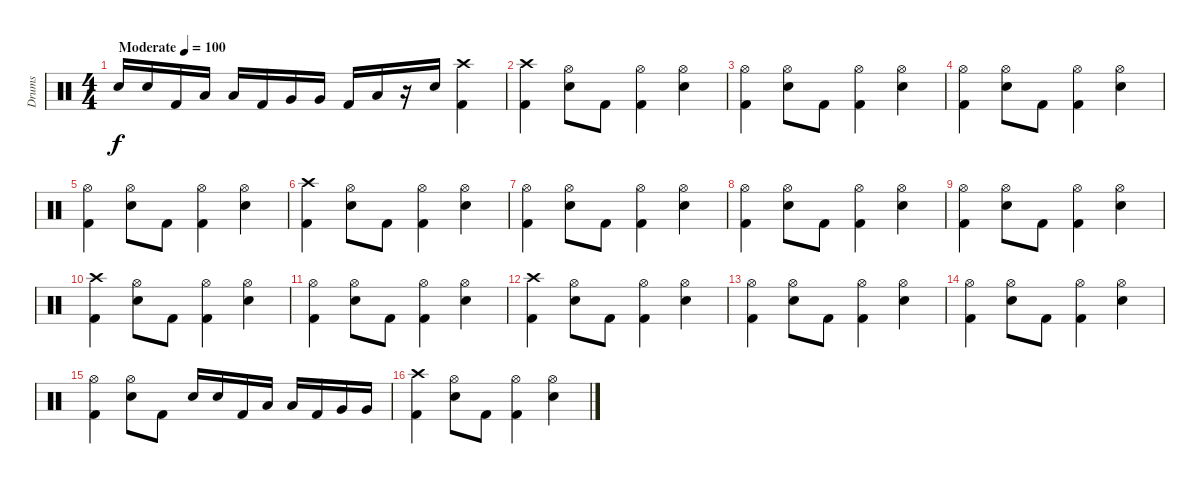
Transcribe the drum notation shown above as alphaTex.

\track ("Drums" "Drums") {instrument percussion}
\staff {score}
\articulation defaults
\ts (4 4)
\tempo (100 "Moderate")
\clef neutral
\ks c "Snare (hit) 2".16{dy f} "Snare (hit) 2".16 "Kick (hit) 2".16 "Low Tom (hit)".16 "Low Tom (hit)".16 "Kick (hit) 2".16 "Very Low Tom (hit)".16 "Very Low Tom (hit)".16 "Kick (hit) 2".16 "Low Floor Tom (hit)".16
r.16 "Snare (hit) 2".16 ("Kick (hit) 2" "Crash high (hit)").4 |
("Kick (hit) 2" "Crash high (hit)").4 ("Snare (hit) 2" "Hi-Hat (open)").8 "Kick (hit) 2".8 ("Kick (hit) 2" "Hi-Hat (open)").4 ("Snare (hit) 2" "Hi-Hat (open)").4 |
("Kick (hit) 2" "Hi-Hat (open)").4 ("Snare (hit) 2" "Hi-Hat (open)").8 "Kick (hit) 2".8 ("Kick (hit) 2" "Hi-Hat (open)").4 ("Snare (hit) 2" "Hi-Hat (open)").4 |
("Kick (hit) 2" "Hi-Hat (open)").4 ("Snare (hit) 2" "Hi-Hat (open)").8 "Kick (hit) 2".8 ("Kick (hit) 2" "Hi-Hat (open)").4 ("Snare (hit) 2" "Hi-Hat (open)").4 |
("Kick (hit) 2" "Hi-Hat (open)").4 ("Snare (hit) 2" "Hi-Hat (open)").8 "Kick (hit) 2".8 ("Kick (hit) 2" "Hi-Hat (open)").4 ("Snare (hit) 2" "Hi-Hat (open)").4 |
("Kick (hit) 2" "Crash high (hit)").4 ("Snare (hit) 2" "Hi-Hat (open)").8 "Kick (hit) 2".8 ("Kick (hit) 2" "Hi-Hat (open)").4 ("Snare (hit) 2" "Hi-Hat (open)").4 |
("Kick (hit) 2" "Hi-Hat (open)").4 ("Snare (hit) 2" "Hi-Hat (open)").8 "Kick (hit) 2".8 ("Kick (hit) 2" "Hi-Hat (open)").4 ("Snare (hit) 2" "Hi-Hat (open)").4 |
("Kick (hit) 2" "Hi-Hat (open)").4 ("Snare (hit) 2" "Hi-Hat (open)").8 "Kick (hit) 2".8 ("Kick (hit) 2" "Hi-Hat (open)").4 ("Snare (hit) 2" "Hi-Hat (open)").4 |
("Kick (hit) 2" "Hi-Hat (open)").4 ("Snare (hit) 2" "Hi-Hat (open)").8 "Kick (hit) 2".8 ("Kick (hit) 2" "Hi-Hat (open)").4 ("Snare (hit) 2" "Hi-Hat (open)").4 |
("Kick (hit) 2" "Crash high (hit)").4 ("Snare (hit) 2" "Hi-Hat (open)").8 "Kick (hit) 2".8 ("Kick (hit) 2" "Hi-Hat (open)").4 ("Snare (hit) 2" "Hi-Hat (open)").4 |
("Kick (hit) 2" "Hi-Hat (open)").4 ("Snare (hit) 2" "Hi-Hat (open)").8 "Kick (hit) 2".8 ("Kick (hit) 2" "Hi-Hat (open)").4 ("Snare (hit) 2" "Hi-Hat (open)").4 |
("Kick (hit) 2" "Crash high (hit)").4 ("Snare (hit) 2" "Hi-Hat (open)").8 "Kick (hit) 2".8 ("Kick (hit) 2" "Hi-Hat (open)").4 ("Snare (hit) 2" "Hi-Hat (open)").4 |
("Kick (hit) 2" "Hi-Hat (open)").4 ("Snare (hit) 2" "Hi-Hat (open)").8 "Kick (hit) 2".8 ("Kick (hit) 2" "Hi-Hat (open)").4 ("Snare (hit) 2" "Hi-Hat (open)").4 |
("Kick (hit) 2" "Hi-Hat (open)").4 ("Snare (hit) 2" "Hi-Hat (open)").8 "Kick (hit) 2".8 ("Kick (hit) 2" "Hi-Hat (open)").4 ("Snare (hit) 2" "Hi-Hat (open)").4 |
("Kick (hit) 2" "Hi-Hat (open)").4 ("Snare (hit) 2" "Hi-Hat (open)").8 "Kick (hit) 2".8 "Snare (hit) 2".16 "Snare (hit) 2".16 "Kick (hit) 2".16 "Low Tom (hit)".16 "Low Tom (hit)".16 "Kick (hit) 2".16 "Very Low Tom (hit)".16 "Very Low Tom (hit)".16 |
("Kick (hit) 2" "Crash high (hit)").4 ("Snare (hit) 2" "Hi-Hat (open)").8 "Kick (hit) 2".8 ("Kick (hit) 2" "Hi-Hat (open)").4 ("Snare (hit) 2" "Hi-Hat (open)").4
